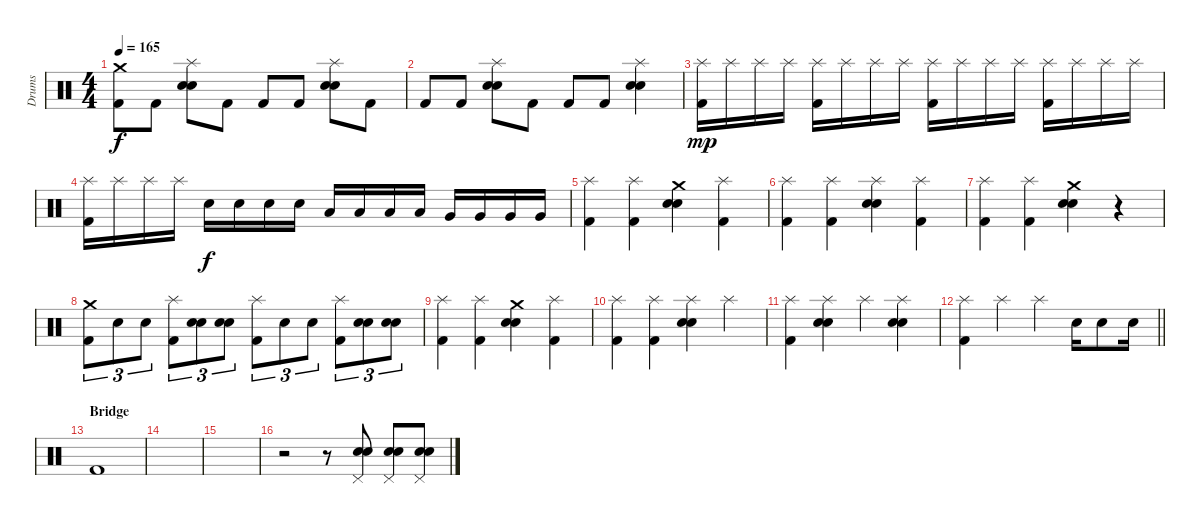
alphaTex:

\track ("Drums" "Drums") {instrument percussion}
\staff {score}
\articulation defaults
\ts (4 4)
\tempo 165
\clef neutral
\ks c
("Crash medium (hit)" "Kick (hit) 2").8{dy f} "Kick (hit) 2".8 ("Splash (hit)" "Electric Snare (hit)" "Snare (hit) 2").8 "Kick (hit) 2".8 "Kick (hit) 2".8 "Kick (hit) 2".8 ("Splash (hit)" "Electric Snare (hit)" "Snare (hit) 2").8 "Kick (hit) 2".8 |
"Kick (hit) 2".8 "Kick (hit) 2".8 ("Splash (hit)" "Electric Snare (hit)" "Snare (hit) 2").8 "Kick (hit) 2".8 "Kick (hit) 2".8 "Kick (hit) 2".8 ("Splash (hit)" "Electric Snare (hit)" "Snare (hit) 2").4 |
("Splash (hit)" "Kick (hit) 2").16{dy mp} "Splash (hit)".16 "Splash (hit)".16 "Splash (hit)".16 ("Splash (hit)" "Kick (hit) 2").16 "Splash (hit)".16 "Splash (hit)".16 "Splash (hit)".16 ("Splash (hit)" "Kick (hit) 2").16 "Splash (hit)".16 "Splash (hit)".16 "Splash (hit)".16 ("Splash (hit)" "Kick (hit) 2").16 "Splash (hit)".16 "Splash (hit)".16 "Splash (hit)".16 |
("Splash (hit)" "Kick (hit) 2").16 "Splash (hit)".16 "Splash (hit)".16 "Splash (hit)".16 "Electric Snare (hit)".16{dy f} "Electric Snare (hit)".16 "Electric Snare (hit)".16 "Electric Snare (hit)".16 "Low Tom (hit)".16 "Low Tom (hit)".16 "Low Tom (hit)".16 "Low Tom (hit)".16 "Very Low Tom (hit)".16 "Very Low Tom (hit)".16 "Very Low Tom (hit)".16 "Very Low Tom (hit)".16 |
("Splash (hit)" "Kick (hit) 2").4 ("Splash (hit)" "Kick (hit) 2").4 ("Crash medium (hit)" "Electric Snare (hit)" "Snare (hit) 2").4 ("Splash (hit)" "Kick (hit) 2").4 |
("Splash (hit)" "Kick (hit) 2").4 ("Splash (hit)" "Kick (hit) 2").4 ("Splash (hit)" "Electric Snare (hit)" "Snare (hit) 2").4 ("Splash (hit)" "Kick (hit) 2").4 |
("Splash (hit)" "Kick (hit) 2").4 ("Splash (hit)" "Kick (hit) 2").4 ("Crash medium (hit)" "Electric Snare (hit)" "Snare (hit) 2").4 r.4 |
("Crash medium (hit)" "Kick (hit) 2").8{tu (3 2)} "Electric Snare (hit)".8{tu (3 2)} "Electric Snare (hit)".8{tu (3 2)} ("Splash (hit)" "Kick (hit) 2").8{tu (3 2)} ("Electric Snare (hit)" "Snare (hit) 2").8{tu (3 2)} ("Electric Snare (hit)" "Snare (hit) 2").8{tu (3 2)} ("Splash (hit)" "Kick (hit) 2").8{tu (3 2)} "Electric Snare (hit)".8{tu (3 2)} "Electric Snare (hit)".8{tu (3 2)} ("Splash (hit)" "Kick (hit) 2").8{tu (3 2)} ("Electric Snare (hit)" "Snare (hit) 2").8{tu (3 2)} ("Electric Snare (hit)" "Snare (hit) 2").8{tu (3 2)} |
("Splash (hit)" "Kick (hit) 2").4 ("Splash (hit)" "Kick (hit) 2").4 ("Crash medium (hit)" "Electric Snare (hit)" "Snare (hit) 2").4 ("Splash (hit)" "Kick (hit) 2").4 |
("Splash (hit)" "Kick (hit) 2").4 ("Splash (hit)" "Kick (hit) 2").4 ("Splash (hit)" "Electric Snare (hit)" "Snare (hit) 2").4 "Splash (hit)".4 |
("Splash (hit)" "Kick (hit) 2").4 ("Splash (hit)" "Electric Snare (hit)" "Snare (hit) 2").4 "Splash (hit)".4 ("Splash (hit)" "Electric Snare (hit)" "Snare (hit) 2").4 |
\barLineRight lightlight
("Splash (hit)" "Kick (hit) 2").4 "Splash (hit)".4 "Splash (hit)".4 "Electric Snare (hit)".16 "Electric Snare (hit)".8 "Electric Snare (hit)".16 |
\section ("" "Bridge")
"Kick (hit) 2".1 |
|
|
r.2 r.8 ("Pedal Hi-Hat (hit)" "Electric Snare (hit)" "Snare (hit) 2").8 ("Pedal Hi-Hat (hit)" "Electric Snare (hit)" "Snare (hit) 2").8 ("Pedal Hi-Hat (hit)" "Electric Snare (hit)" "Snare (hit) 2").8
